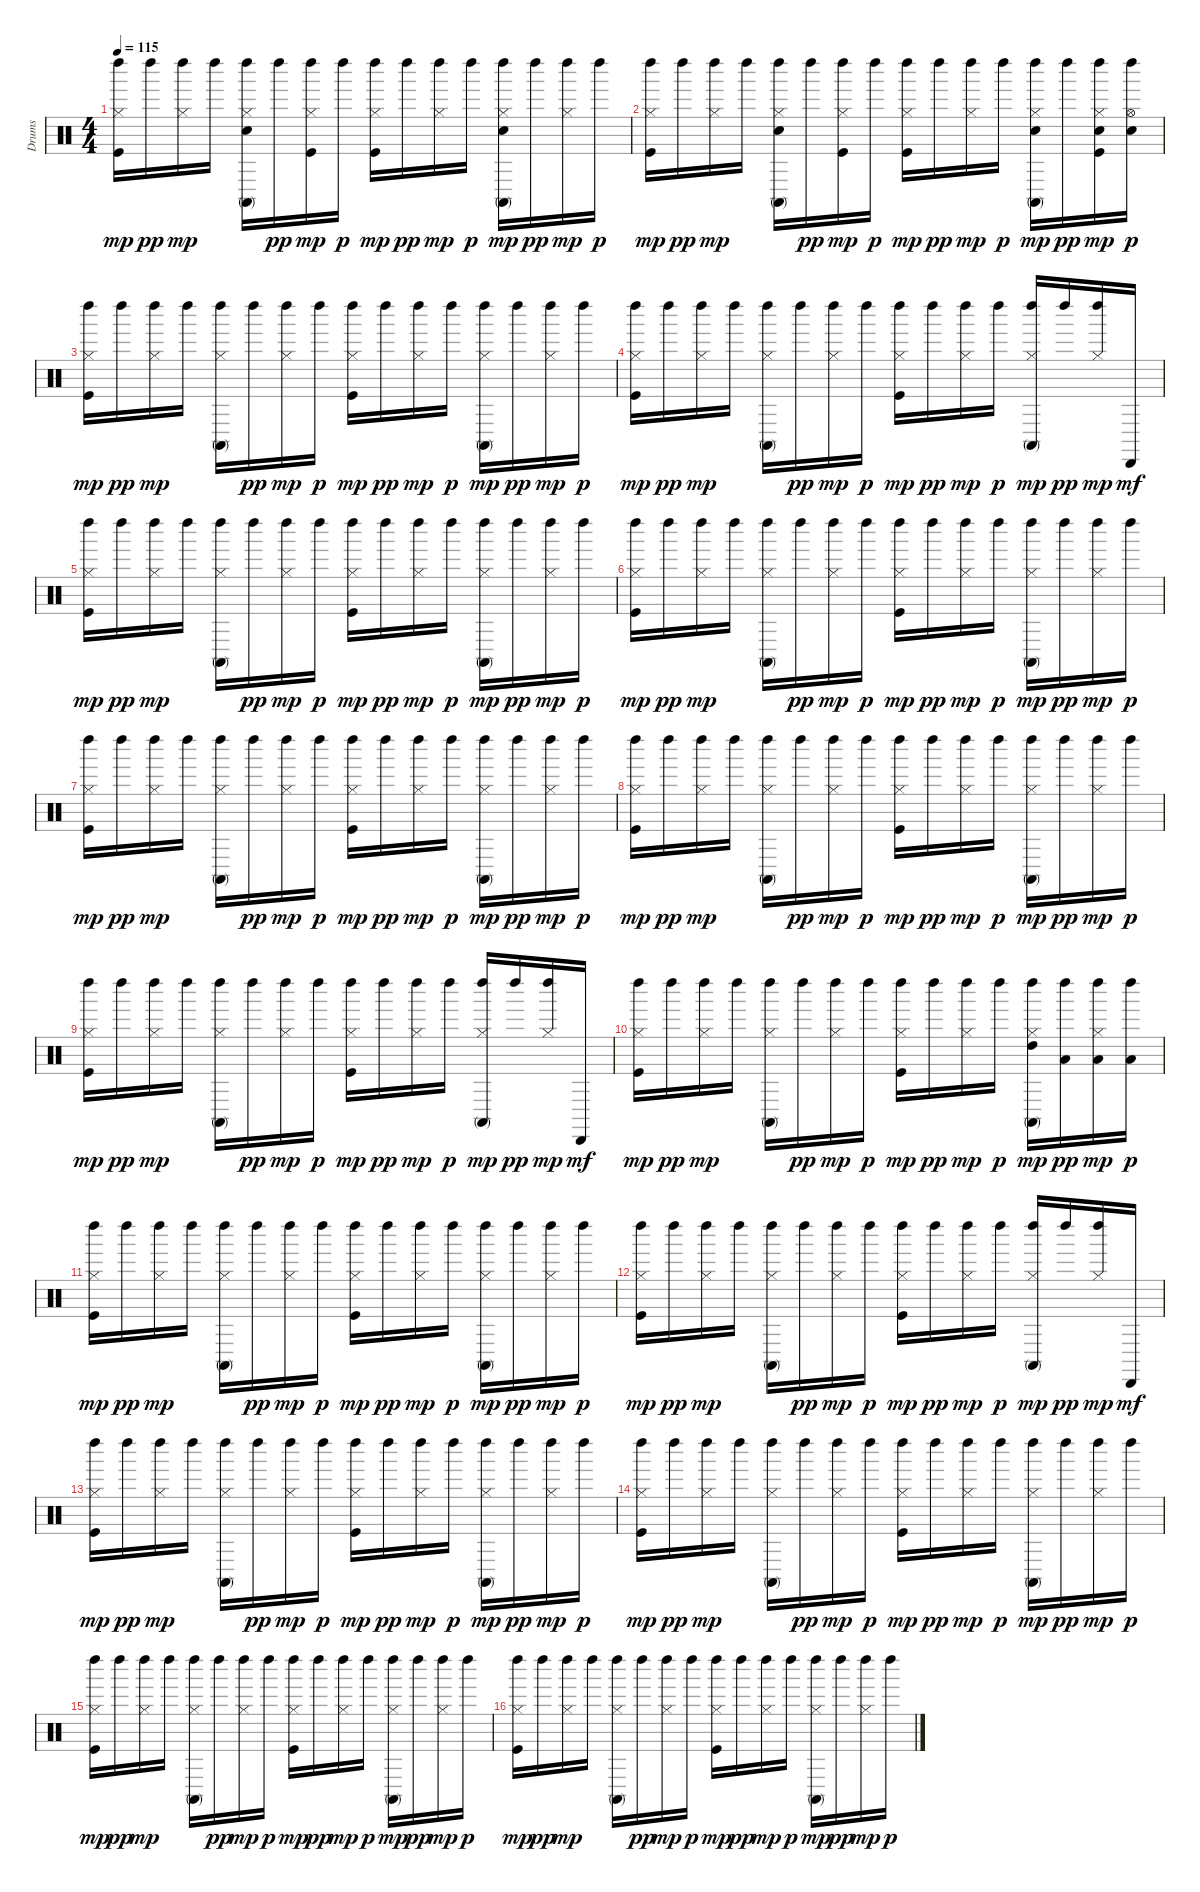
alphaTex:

\track ("Drums" "Drums") {instrument percussion}
\staff {score}
\articulation defaults
\ts (4 4)
\tempo 115
\clef neutral
\ks c
("Kick (hit)" "Hi-Hat (closed)" "Left Maraca (hit)").16{dy mp} "Left Maraca (hit)".16{dy pp} ("Hi-Hat (closed)" "Left Maraca (hit)").16{dy mp} "Left Maraca (hit)".16 ("Snare (hit) 2" "Hi-Hat (closed)" "Conga high (mute)" "Left Maraca (hit)").16 "Left Maraca (hit)".16{dy pp} ("Kick (hit)" "Hi-Hat (closed)" "Left Maraca (hit)").16{dy mp} "Left Maraca (hit)".16{dy p} ("Kick (hit)" "Hi-Hat (closed)" "Left Maraca (hit)").16{dy mp} "Left Maraca (hit)".16{dy pp} ("Hi-Hat (closed)" "Left Maraca (hit)").16{dy mp} "Left Maraca (hit)".16{dy p} ("Snare (hit) 2" "Hi-Hat (closed)" "Conga high (mute)" "Left Maraca (hit)").16{dy mp} "Left Maraca (hit)".16{dy pp} ("Hi-Hat (closed)" "Left Maraca (hit)").16{dy mp} "Left Maraca (hit)".16{dy p} |
("Kick (hit)" "Hi-Hat (closed)" "Left Maraca (hit)").16{dy mp} "Left Maraca (hit)".16{dy pp} ("Hi-Hat (closed)" "Left Maraca (hit)").16{dy mp} "Left Maraca (hit)".16 ("Snare (hit) 2" "Hi-Hat (closed)" "Conga high (mute)" "Left Maraca (hit)").16 "Left Maraca (hit)".16{dy pp} ("Kick (hit)" "Hi-Hat (closed)" "Left Maraca (hit)").16{dy mp} "Left Maraca (hit)".16{dy p} ("Kick (hit)" "Hi-Hat (closed)" "Left Maraca (hit)").16{dy mp} "Left Maraca (hit)".16{dy pp} ("Hi-Hat (closed)" "Left Maraca (hit)").16{dy mp} "Left Maraca (hit)".16{dy p} ("Snare (hit) 2" "Hi-Hat (closed)" "Conga high (mute)" "Left Maraca (hit)").16{dy mp} "Left Maraca (hit)".16{dy pp} ("Kick (hit)" "Snare (hit) 2" "Hi-Hat (closed)" "Left Maraca (hit)").16{dy mp} ("Snare (hit) 2" "Hi-Hat (open)" "Left Maraca (hit)").16{dy p} |
("Kick (hit)" "Hi-Hat (closed)" "Left Maraca (hit)").16{dy mp} "Left Maraca (hit)".16{dy pp} ("Hi-Hat (closed)" "Left Maraca (hit)").16{dy mp} "Left Maraca (hit)".16 ("Hi-Hat (closed)" "Conga high (mute)" "Left Maraca (hit)").16 "Left Maraca (hit)".16{dy pp} ("Hi-Hat (closed)" "Left Maraca (hit)").16{dy mp} "Left Maraca (hit)".16{dy p} ("Kick (hit)" "Hi-Hat (closed)" "Left Maraca (hit)").16{dy mp} "Left Maraca (hit)".16{dy pp} ("Hi-Hat (closed)" "Left Maraca (hit)").16{dy mp} "Left Maraca (hit)".16{dy p} ("Hi-Hat (closed)" "Conga high (mute)" "Left Maraca (hit)").16{dy mp} "Left Maraca (hit)".16{dy pp} ("Hi-Hat (closed)" "Left Maraca (hit)").16{dy mp} "Left Maraca (hit)".16{dy p} |
("Kick (hit)" "Hi-Hat (closed)" "Left Maraca (hit)").16{dy mp} "Left Maraca (hit)".16{dy pp} ("Hi-Hat (closed)" "Left Maraca (hit)").16{dy mp} "Left Maraca (hit)".16 ("Hi-Hat (closed)" "Conga high (mute)" "Left Maraca (hit)").16 "Left Maraca (hit)".16{dy pp} ("Hi-Hat (closed)" "Left Maraca (hit)").16{dy mp} "Left Maraca (hit)".16{dy p} ("Kick (hit)" "Hi-Hat (closed)" "Left Maraca (hit)").16{dy mp} "Left Maraca (hit)".16{dy pp} ("Hi-Hat (closed)" "Left Maraca (hit)").16{dy mp} "Left Maraca (hit)".16{dy p} ("Hi-Hat (closed)" "Conga high (mute)" "Left Maraca (hit)").16{dy mp} "Left Maraca (hit)".16{dy pp} ("Hi-Hat (closed)" "Left Maraca (hit)").16{dy mp} "Cabasa (hit)".16{dy mf} |
("Kick (hit)" "Hi-Hat (closed)" "Left Maraca (hit)").16{dy mp} "Left Maraca (hit)".16{dy pp} ("Hi-Hat (closed)" "Left Maraca (hit)").16{dy mp} "Left Maraca (hit)".16 ("Hi-Hat (closed)" "Conga high (mute)" "Left Maraca (hit)").16 "Left Maraca (hit)".16{dy pp} ("Hi-Hat (closed)" "Left Maraca (hit)").16{dy mp} "Left Maraca (hit)".16{dy p} ("Kick (hit)" "Hi-Hat (closed)" "Left Maraca (hit)").16{dy mp} "Left Maraca (hit)".16{dy pp} ("Hi-Hat (closed)" "Left Maraca (hit)").16{dy mp} "Left Maraca (hit)".16{dy p} ("Hi-Hat (closed)" "Conga high (mute)" "Left Maraca (hit)").16{dy mp} "Left Maraca (hit)".16{dy pp} ("Hi-Hat (closed)" "Left Maraca (hit)").16{dy mp} "Left Maraca (hit)".16{dy p} |
("Kick (hit)" "Hi-Hat (closed)" "Left Maraca (hit)").16{dy mp} "Left Maraca (hit)".16{dy pp} ("Hi-Hat (closed)" "Left Maraca (hit)").16{dy mp} "Left Maraca (hit)".16 ("Hi-Hat (closed)" "Conga high (mute)" "Left Maraca (hit)").16 "Left Maraca (hit)".16{dy pp} ("Hi-Hat (closed)" "Left Maraca (hit)").16{dy mp} "Left Maraca (hit)".16{dy p} ("Kick (hit)" "Hi-Hat (closed)" "Left Maraca (hit)").16{dy mp} "Left Maraca (hit)".16{dy pp} ("Hi-Hat (closed)" "Left Maraca (hit)").16{dy mp} "Left Maraca (hit)".16{dy p} ("Hi-Hat (closed)" "Conga high (mute)" "Left Maraca (hit)").16{dy mp} "Left Maraca (hit)".16{dy pp} ("Hi-Hat (closed)" "Left Maraca (hit)").16{dy mp} "Left Maraca (hit)".16{dy p} |
("Kick (hit)" "Hi-Hat (closed)" "Left Maraca (hit)").16{dy mp} "Left Maraca (hit)".16{dy pp} ("Hi-Hat (closed)" "Left Maraca (hit)").16{dy mp} "Left Maraca (hit)".16 ("Hi-Hat (closed)" "Conga high (mute)" "Left Maraca (hit)").16 "Left Maraca (hit)".16{dy pp} ("Hi-Hat (closed)" "Left Maraca (hit)").16{dy mp} "Left Maraca (hit)".16{dy p} ("Kick (hit)" "Hi-Hat (closed)" "Left Maraca (hit)").16{dy mp} "Left Maraca (hit)".16{dy pp} ("Hi-Hat (closed)" "Left Maraca (hit)").16{dy mp} "Left Maraca (hit)".16{dy p} ("Hi-Hat (closed)" "Conga high (mute)" "Left Maraca (hit)").16{dy mp} "Left Maraca (hit)".16{dy pp} ("Hi-Hat (closed)" "Left Maraca (hit)").16{dy mp} "Left Maraca (hit)".16{dy p} |
("Kick (hit)" "Hi-Hat (closed)" "Left Maraca (hit)").16{dy mp} "Left Maraca (hit)".16{dy pp} ("Hi-Hat (closed)" "Left Maraca (hit)").16{dy mp} "Left Maraca (hit)".16 ("Hi-Hat (closed)" "Conga high (mute)" "Left Maraca (hit)").16 "Left Maraca (hit)".16{dy pp} ("Hi-Hat (closed)" "Left Maraca (hit)").16{dy mp} "Left Maraca (hit)".16{dy p} ("Kick (hit)" "Hi-Hat (closed)" "Left Maraca (hit)").16{dy mp} "Left Maraca (hit)".16{dy pp} ("Hi-Hat (closed)" "Left Maraca (hit)").16{dy mp} "Left Maraca (hit)".16{dy p} ("Hi-Hat (closed)" "Conga high (mute)" "Left Maraca (hit)").16{dy mp} "Left Maraca (hit)".16{dy pp} ("Hi-Hat (closed)" "Left Maraca (hit)").16{dy mp} "Left Maraca (hit)".16{dy p} |
("Kick (hit)" "Hi-Hat (closed)" "Left Maraca (hit)").16{dy mp} "Left Maraca (hit)".16{dy pp} ("Hi-Hat (closed)" "Left Maraca (hit)").16{dy mp} "Left Maraca (hit)".16 ("Hi-Hat (closed)" "Conga high (mute)" "Left Maraca (hit)").16 "Left Maraca (hit)".16{dy pp} ("Hi-Hat (closed)" "Left Maraca (hit)").16{dy mp} "Left Maraca (hit)".16{dy p} ("Kick (hit)" "Hi-Hat (closed)" "Left Maraca (hit)").16{dy mp} "Left Maraca (hit)".16{dy pp} ("Hi-Hat (closed)" "Left Maraca (hit)").16{dy mp} "Left Maraca (hit)".16{dy p} ("Hi-Hat (closed)" "Conga high (mute)" "Left Maraca (hit)").16{dy mp} "Left Maraca (hit)".16{dy pp} ("Hi-Hat (closed)" "Left Maraca (hit)").16{dy mp} "Cabasa (hit)".16{dy mf} |
("Kick (hit)" "Hi-Hat (closed)" "Left Maraca (hit)").16{dy mp} "Left Maraca (hit)".16{dy pp} ("Hi-Hat (closed)" "Left Maraca (hit)").16{dy mp} "Left Maraca (hit)".16 ("Hi-Hat (closed)" "Conga high (mute)" "Left Maraca (hit)").16 "Left Maraca (hit)".16{dy pp} ("Hi-Hat (closed)" "Left Maraca (hit)").16{dy mp} "Left Maraca (hit)".16{dy p} ("Kick (hit)" "Hi-Hat (closed)" "Left Maraca (hit)").16{dy mp} "Left Maraca (hit)".16{dy pp} ("Hi-Hat (closed)" "Left Maraca (hit)").16{dy mp} "Left Maraca (hit)".16{dy p} ("Hi-Hat (closed)" "High Tom (hit)" "Conga high (mute)" "Left Maraca (hit)").16{dy mp} ("Low Tom (hit)" "Left Maraca (hit)").16{dy pp} ("Hi-Hat (closed)" "Low Floor Tom (hit)" "Left Maraca (hit)").16{dy mp} ("Low Tom (hit)" "Left Maraca (hit)").16{dy p} |
("Kick (hit)" "Hi-Hat (closed)" "Left Maraca (hit)").16{dy mp} "Left Maraca (hit)".16{dy pp} ("Hi-Hat (closed)" "Left Maraca (hit)").16{dy mp} "Left Maraca (hit)".16 ("Hi-Hat (closed)" "Conga high (mute)" "Left Maraca (hit)").16 "Left Maraca (hit)".16{dy pp} ("Hi-Hat (closed)" "Left Maraca (hit)").16{dy mp} "Left Maraca (hit)".16{dy p} ("Kick (hit)" "Hi-Hat (closed)" "Left Maraca (hit)").16{dy mp} "Left Maraca (hit)".16{dy pp} ("Hi-Hat (closed)" "Left Maraca (hit)").16{dy mp} "Left Maraca (hit)".16{dy p} ("Hi-Hat (closed)" "Conga high (mute)" "Left Maraca (hit)").16{dy mp} "Left Maraca (hit)".16{dy pp} ("Hi-Hat (closed)" "Left Maraca (hit)").16{dy mp} "Left Maraca (hit)".16{dy p} |
("Kick (hit)" "Hi-Hat (closed)" "Left Maraca (hit)").16{dy mp} "Left Maraca (hit)".16{dy pp} ("Hi-Hat (closed)" "Left Maraca (hit)").16{dy mp} "Left Maraca (hit)".16 ("Hi-Hat (closed)" "Conga high (mute)" "Left Maraca (hit)").16 "Left Maraca (hit)".16{dy pp} ("Hi-Hat (closed)" "Left Maraca (hit)").16{dy mp} "Left Maraca (hit)".16{dy p} ("Kick (hit)" "Hi-Hat (closed)" "Left Maraca (hit)").16{dy mp} "Left Maraca (hit)".16{dy pp} ("Hi-Hat (closed)" "Left Maraca (hit)").16{dy mp} "Left Maraca (hit)".16{dy p} ("Hi-Hat (closed)" "Conga high (mute)" "Left Maraca (hit)").16{dy mp} "Left Maraca (hit)".16{dy pp} ("Hi-Hat (closed)" "Left Maraca (hit)").16{dy mp} "Cabasa (hit)".16{dy mf} |
("Kick (hit)" "Hi-Hat (closed)" "Left Maraca (hit)").16{dy mp} "Left Maraca (hit)".16{dy pp} ("Hi-Hat (closed)" "Left Maraca (hit)").16{dy mp} "Left Maraca (hit)".16 ("Hi-Hat (closed)" "Conga high (mute)" "Left Maraca (hit)").16 "Left Maraca (hit)".16{dy pp} ("Hi-Hat (closed)" "Left Maraca (hit)").16{dy mp} "Left Maraca (hit)".16{dy p} ("Kick (hit)" "Hi-Hat (closed)" "Left Maraca (hit)").16{dy mp} "Left Maraca (hit)".16{dy pp} ("Hi-Hat (closed)" "Left Maraca (hit)").16{dy mp} "Left Maraca (hit)".16{dy p} ("Hi-Hat (closed)" "Conga high (mute)" "Left Maraca (hit)").16{dy mp} "Left Maraca (hit)".16{dy pp} ("Hi-Hat (closed)" "Left Maraca (hit)").16{dy mp} "Left Maraca (hit)".16{dy p} |
("Kick (hit)" "Hi-Hat (closed)" "Left Maraca (hit)").16{dy mp} "Left Maraca (hit)".16{dy pp} ("Hi-Hat (closed)" "Left Maraca (hit)").16{dy mp} "Left Maraca (hit)".16 ("Hi-Hat (closed)" "Conga high (mute)" "Left Maraca (hit)").16 "Left Maraca (hit)".16{dy pp} ("Hi-Hat (closed)" "Left Maraca (hit)").16{dy mp} "Left Maraca (hit)".16{dy p} ("Kick (hit)" "Hi-Hat (closed)" "Left Maraca (hit)").16{dy mp} "Left Maraca (hit)".16{dy pp} ("Hi-Hat (closed)" "Left Maraca (hit)").16{dy mp} "Left Maraca (hit)".16{dy p} ("Hi-Hat (closed)" "Conga high (mute)" "Left Maraca (hit)").16{dy mp} "Left Maraca (hit)".16{dy pp} ("Hi-Hat (closed)" "Left Maraca (hit)").16{dy mp} "Left Maraca (hit)".16{dy p} |
("Kick (hit)" "Hi-Hat (closed)" "Left Maraca (hit)").16{dy mp} "Left Maraca (hit)".16{dy pp} ("Hi-Hat (closed)" "Left Maraca (hit)").16{dy mp} "Left Maraca (hit)".16 ("Hi-Hat (closed)" "Conga high (mute)" "Left Maraca (hit)").16 "Left Maraca (hit)".16{dy pp} ("Hi-Hat (closed)" "Left Maraca (hit)").16{dy mp} "Left Maraca (hit)".16{dy p} ("Kick (hit)" "Hi-Hat (closed)" "Left Maraca (hit)").16{dy mp} "Left Maraca (hit)".16{dy pp} ("Hi-Hat (closed)" "Left Maraca (hit)").16{dy mp} "Left Maraca (hit)".16{dy p} ("Hi-Hat (closed)" "Conga high (mute)" "Left Maraca (hit)").16{dy mp} "Left Maraca (hit)".16{dy pp} ("Hi-Hat (closed)" "Left Maraca (hit)").16{dy mp} "Left Maraca (hit)".16{dy p} |
("Kick (hit)" "Hi-Hat (closed)" "Left Maraca (hit)").16{dy mp} "Left Maraca (hit)".16{dy pp} ("Hi-Hat (closed)" "Left Maraca (hit)").16{dy mp} "Left Maraca (hit)".16 ("Hi-Hat (closed)" "Conga high (mute)" "Left Maraca (hit)").16 "Left Maraca (hit)".16{dy pp} ("Hi-Hat (closed)" "Left Maraca (hit)").16{dy mp} "Left Maraca (hit)".16{dy p} ("Kick (hit)" "Hi-Hat (closed)" "Left Maraca (hit)").16{dy mp} "Left Maraca (hit)".16{dy pp} ("Hi-Hat (closed)" "Left Maraca (hit)").16{dy mp} "Left Maraca (hit)".16{dy p} ("Hi-Hat (closed)" "Conga high (mute)" "Left Maraca (hit)").16{dy mp} "Left Maraca (hit)".16{dy pp} ("Hi-Hat (closed)" "Left Maraca (hit)").16{dy mp} "Left Maraca (hit)".16{dy p}
